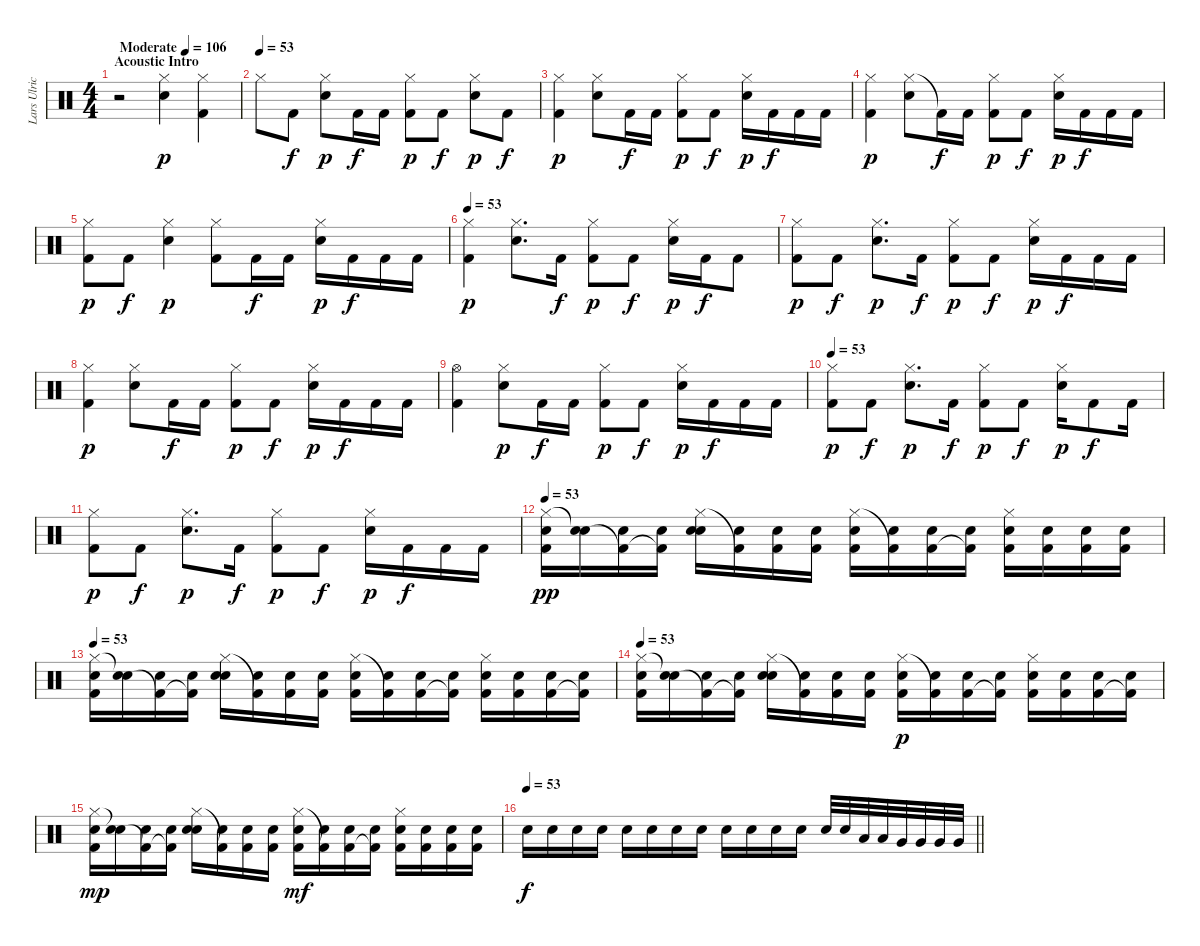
\track ("Lars Ulrich [Drums]" "Lars Ulric") {instrument percussion}
\staff {score}
\articulation defaults
\ts (4 4)
\section ("" "Acoustic Intro")
\tempo (106 "Moderate")
\tempo 53
\tempo (106 "Moderate")
\clef neutral
\ks c
r.2{dy p volume 0} ("Hi-Hat (closed)" "Electric Snare (hit)").4{volume 2} ("Hi-Hat (closed)" "Kick (hit) 2").4 |
\tempo (53)
"Hi-Hat (closed)".8{volume 5} "Kick (hit) 2".8{dy f} ("Hi-Hat (closed)" "Electric Snare (hit)").8{dy p} "Kick (hit) 2".16{dy f} "Kick (hit) 2".16 ("Hi-Hat (closed)" "Kick (hit) 2").8{dy p} "Kick (hit) 2".8{dy f} ("Hi-Hat (closed)" "Electric Snare (hit)").8{dy p} "Kick (hit) 2".8{dy f} |
("Hi-Hat (closed)" "Kick (hit) 2").4{dy p volume 8} ("Hi-Hat (closed)" "Electric Snare (hit)").8 "Kick (hit) 2".16{dy f} "Kick (hit) 2".16 ("Hi-Hat (closed)" "Kick (hit) 2").8{dy p} "Kick (hit) 2".8{dy f} ("Hi-Hat (closed)" "Electric Snare (hit)").16{dy p} "Kick (hit) 2".16{dy f} "Kick (hit) 2".16 "Kick (hit) 2".16 |
("Hi-Hat (closed)" "Kick (hit) 2").4{dy p volume 11} ("Hi-Hat (closed)" "Electric Snare (hit)").8 "Kick (hit) 2"{t}.16{dy f} "Kick (hit) 2".16 ("Hi-Hat (closed)" "Kick (hit) 2").8{dy p} "Kick (hit) 2".8{dy f} ("Hi-Hat (closed)" "Electric Snare (hit)").16{dy p} "Kick (hit) 2".16{dy f} "Kick (hit) 2".16 "Kick (hit) 2".16 |
("Hi-Hat (closed)" "Kick (hit) 2").8{dy p volume 13} "Kick (hit) 2".8{dy f} ("Hi-Hat (closed)" "Electric Snare (hit)").4{dy p} ("Hi-Hat (closed)" "Kick (hit) 2").8 "Kick (hit) 2".16{dy f} "Kick (hit) 2".16 ("Hi-Hat (closed)" "Electric Snare (hit)").16{dy p} "Kick (hit) 2".16{dy f} "Kick (hit) 2".16 "Kick (hit) 2".16 |
\tempo 53
("Hi-Hat (closed)" "Kick (hit) 2").4{dy p} ("Hi-Hat (closed)" "Electric Snare (hit)").8{d} "Kick (hit) 2".16{dy f} ("Hi-Hat (closed)" "Kick (hit) 2").8{dy p} "Kick (hit) 2".8{dy f} ("Hi-Hat (closed)" "Electric Snare (hit)").16{dy p} "Kick (hit) 2".16{dy f} "Kick (hit) 2".8 |
("Hi-Hat (closed)" "Kick (hit) 2").8{dy p} "Kick (hit) 2".8{dy f} ("Hi-Hat (closed)" "Electric Snare (hit)").8{d dy p} "Kick (hit) 2".16{dy f} ("Hi-Hat (closed)" "Kick (hit) 2").8{dy p} "Kick (hit) 2".8{dy f} ("Hi-Hat (closed)" "Electric Snare (hit)").16{dy p} "Kick (hit) 2".16{dy f} "Kick (hit) 2".16 "Kick (hit) 2".16 |
("Hi-Hat (closed)" "Kick (hit) 2").4{dy p} ("Hi-Hat (closed)" "Electric Snare (hit)").8 "Kick (hit) 2".16{dy f} "Kick (hit) 2".16 ("Hi-Hat (closed)" "Kick (hit) 2").8{dy p} "Kick (hit) 2".8{dy f} ("Hi-Hat (closed)" "Electric Snare (hit)").16{dy p} "Kick (hit) 2".16{dy f} "Kick (hit) 2".16 "Kick (hit) 2".16 |
("Hi-Hat (open)" "Kick (hit) 2").4 ("Hi-Hat (closed)" "Electric Snare (hit)").8{dy p} "Kick (hit) 2".16{dy f} "Kick (hit) 2".16 ("Hi-Hat (closed)" "Kick (hit) 2").8{dy p} "Kick (hit) 2".8{dy f} ("Hi-Hat (closed)" "Electric Snare (hit)").16{dy p} "Kick (hit) 2".16{dy f} "Kick (hit) 2".16 "Kick (hit) 2".16 |
\tempo 53
("Hi-Hat (closed)" "Kick (hit) 2").8{dy p} "Kick (hit) 2".8{dy f} ("Hi-Hat (closed)" "Electric Snare (hit)").8{d dy p} "Kick (hit) 2".16{dy f} ("Hi-Hat (closed)" "Kick (hit) 2").8{dy p} "Kick (hit) 2".8{dy f} ("Hi-Hat (closed)" "Electric Snare (hit)").16{dy p} "Kick (hit) 2".8{dy f} "Kick (hit) 2".16 |
("Hi-Hat (closed)" "Kick (hit) 2").8{dy p} "Kick (hit) 2".8{dy f} ("Hi-Hat (closed)" "Electric Snare (hit)").8{d dy p} "Kick (hit) 2".16{dy f} ("Hi-Hat (closed)" "Kick (hit) 2").8{dy p} "Kick (hit) 2".8{dy f} ("Hi-Hat (closed)" "Electric Snare (hit)").16{dy p} "Kick (hit) 2".16{dy f} "Kick (hit) 2".16 "Kick (hit) 2".16 |
\tempo 53
("Hi-Hat (closed)" "Kick (hit) 2" "Electric Snare (hit)").16{dy pp} ("Electric Snare (hit)"{t} "Electric Snare (hit)").16 ("Kick (hit) 2"{t} "Electric Snare (hit)").16 ("Kick (hit) 2"{t} "Electric Snare (hit)").16 ("Hi-Hat (closed)" "Electric Snare (hit)" "Electric Snare (hit)").16 ("Kick (hit) 2"{t} "Electric Snare (hit)").16 ("Kick (hit) 2" "Electric Snare (hit)").16 ("Kick (hit) 2" "Electric Snare (hit)").16 ("Hi-Hat (closed)" "Kick (hit) 2" "Electric Snare (hit)").16 ("Kick (hit) 2"{t} "Electric Snare (hit)").16 ("Kick (hit) 2" "Electric Snare (hit)").16 ("Kick (hit) 2"{t} "Electric Snare (hit)").16 ("Hi-Hat (closed)" "Kick (hit) 2" "Electric Snare (hit)").16 ("Kick (hit) 2" "Electric Snare (hit)").16 ("Kick (hit) 2" "Electric Snare (hit)").16 ("Kick (hit) 2" "Electric Snare (hit)").16 |
\tempo 53
("Hi-Hat (closed)" "Kick (hit) 2" "Electric Snare (hit)").16 ("Electric Snare (hit)"{t} "Electric Snare (hit)").16 ("Kick (hit) 2"{t} "Electric Snare (hit)").16 ("Kick (hit) 2"{t} "Electric Snare (hit)").16 ("Hi-Hat (closed)" "Electric Snare (hit)" "Electric Snare (hit)").16 ("Kick (hit) 2"{t} "Electric Snare (hit)").16 ("Kick (hit) 2" "Electric Snare (hit)").16 ("Kick (hit) 2" "Electric Snare (hit)").16 ("Hi-Hat (closed)" "Kick (hit) 2" "Electric Snare (hit)").16 ("Kick (hit) 2"{t} "Electric Snare (hit)").16 ("Kick (hit) 2" "Electric Snare (hit)").16 ("Kick (hit) 2"{t} "Electric Snare (hit)").16 ("Hi-Hat (closed)" "Kick (hit) 2" "Electric Snare (hit)").16 ("Kick (hit) 2" "Electric Snare (hit)").16 ("Kick (hit) 2" "Electric Snare (hit)").16 ("Kick (hit) 2"{t} "Electric Snare (hit)").16 |
\tempo 53
("Hi-Hat (closed)" "Kick (hit) 2" "Electric Snare (hit)").16 ("Electric Snare (hit)"{t} "Electric Snare (hit)").16 ("Kick (hit) 2"{t} "Electric Snare (hit)").16 ("Kick (hit) 2"{t} "Electric Snare (hit)").16 ("Hi-Hat (closed)" "Electric Snare (hit)" "Electric Snare (hit)").16 ("Kick (hit) 2"{t} "Electric Snare (hit)").16 ("Kick (hit) 2" "Electric Snare (hit)").16 ("Kick (hit) 2" "Electric Snare (hit)").16 ("Hi-Hat (closed)" "Kick (hit) 2" "Electric Snare (hit)").16{dy p} ("Kick (hit) 2"{t} "Electric Snare (hit)").16 ("Kick (hit) 2" "Electric Snare (hit)").16 ("Kick (hit) 2"{t} "Electric Snare (hit)").16 ("Hi-Hat (closed)" "Kick (hit) 2" "Electric Snare (hit)").16 ("Kick (hit) 2" "Electric Snare (hit)").16 ("Kick (hit) 2" "Electric Snare (hit)").16 ("Kick (hit) 2"{t} "Electric Snare (hit)").16 |
("Hi-Hat (closed)" "Kick (hit) 2" "Electric Snare (hit)").16{dy mp} ("Electric Snare (hit)"{t} "Electric Snare (hit)").16 ("Kick (hit) 2"{t} "Electric Snare (hit)").16 ("Kick (hit) 2"{t} "Electric Snare (hit)").16 ("Hi-Hat (closed)" "Electric Snare (hit)" "Electric Snare (hit)").16 ("Kick (hit) 2"{t} "Electric Snare (hit)").16 ("Kick (hit) 2" "Electric Snare (hit)").16 ("Kick (hit) 2" "Electric Snare (hit)").16 ("Hi-Hat (closed)" "Kick (hit) 2" "Electric Snare (hit)").16{dy mf} ("Kick (hit) 2"{t} "Electric Snare (hit)").16 ("Kick (hit) 2" "Electric Snare (hit)").16 ("Kick (hit) 2"{t} "Electric Snare (hit)").16 ("Hi-Hat (closed)" "Kick (hit) 2" "Electric Snare (hit)").16 ("Kick (hit) 2" "Electric Snare (hit)").16 ("Kick (hit) 2" "Electric Snare (hit)").16 ("Kick (hit) 2" "Electric Snare (hit)").16 |
\tempo 53
\barLineRight lightlight "Electric Snare (hit)".16{dy f} "Electric Snare (hit)".16 "Electric Snare (hit)".16 "Electric Snare (hit)".16 "Electric Snare (hit)".16 "Electric Snare (hit)".16 "Electric Snare (hit)".16 "Electric Snare (hit)".16 "Electric Snare (hit)".16 "Electric Snare (hit)".16 "Electric Snare (hit)".16 "Electric Snare (hit)".16 "Electric Snare (hit)".32 "Electric Snare (hit)".32 "Low Tom (hit)".32 "Low Tom (hit)".32 "Very Low Tom (hit)".32 "Very Low Tom (hit)".32 "Very Low Tom (hit)".32 "Very Low Tom (hit)".32
